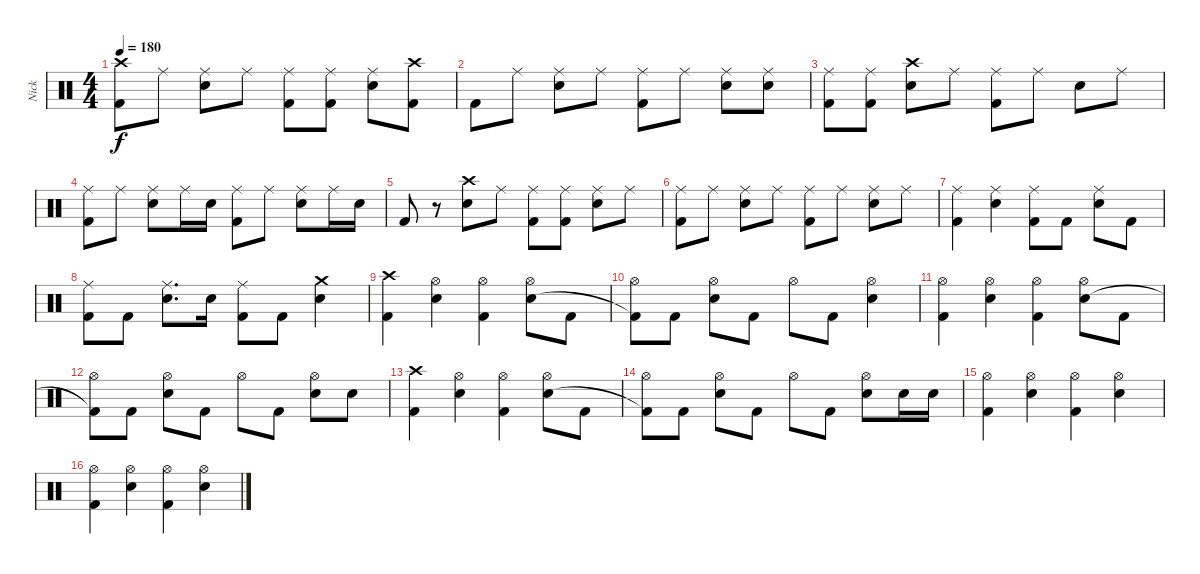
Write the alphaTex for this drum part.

\track ("Nick" "Nick") {instrument percussion}
\staff {score}
\articulation defaults
\ts (4 4)
\tempo 180
\clef neutral
\ks c
("Crash high (hit)" "Kick (hit) 2").8{dy f} "Ride (middle)".8 ("Ride (middle)" "Snare (hit) 2").8 "Ride (middle)".8 ("Ride (middle)" "Kick (hit) 2").8 ("Ride (middle)" "Kick (hit) 2").8 ("Ride (middle)" "Snare (hit) 2").8 ("Crash high (hit)" "Kick (hit) 2").8 |
"Kick (hit) 2".8 "Ride (middle)".8 ("Ride (middle)" "Snare (hit) 2").8 "Ride (middle)".8 ("Ride (middle)" "Kick (hit) 2").8 "Ride (middle)".8 ("Ride (middle)" "Snare (hit) 2").8 ("Ride (middle)" "Snare (hit) 2").8 |
("Ride (middle)" "Kick (hit) 2").8 ("Ride (middle)" "Kick (hit) 2").8 ("Crash high (hit)" "Snare (hit) 2").8 "Ride (middle)".8 ("Ride (middle)" "Kick (hit) 2").8 "Ride (middle)".8 "Snare (hit) 2".8 "Ride (middle)".8 |
("Ride (middle)" "Kick (hit) 2").8 "Ride (middle)".8 ("Ride (middle)" "Snare (hit) 2").8 "Ride (middle)".16 "Snare (hit) 2".16 ("Ride (middle)" "Kick (hit) 2").8 "Ride (middle)".8 ("Ride (middle)" "Snare (hit) 2").8 "Ride (middle)".16 "Snare (hit) 2".16 |
"Kick (hit) 2".8 r.8 ("Crash high (hit)" "Snare (hit) 2").8 "Ride (middle)".8 ("Ride (middle)" "Kick (hit) 2").8 ("Ride (middle)" "Kick (hit) 2").8 ("Ride (middle)" "Snare (hit) 2").8 "Ride (middle)".8 |
("Ride (middle)" "Kick (hit) 2").8 "Ride (middle)".8 ("Ride (middle)" "Snare (hit) 2").8 "Ride (middle)".8 ("Ride (middle)" "Kick (hit) 2").8 "Ride (middle)".8 ("Ride (middle)" "Snare (hit) 2").8 "Ride (middle)".8 |
("Ride (middle)" "Kick (hit) 2").4 ("Ride (middle)" "Snare (hit) 2").4 ("Ride (middle)" "Kick (hit) 2").8 "Kick (hit) 2".8 ("Ride (middle)" "Snare (hit) 2").8 "Kick (hit) 2".8 |
("Ride (middle)" "Kick (hit) 2").8 "Kick (hit) 2".8 ("Ride (middle)" "Snare (hit) 2").8{d} "Snare (hit) 2".16 ("Ride (middle)" "Kick (hit) 2").8 "Kick (hit) 2".8 ("Crash medium (hit)" "Snare (hit) 2").4 |
("Crash high (hit)" "Kick (hit) 2").4 ("Hi-Hat (open)" "Snare (hit) 2").4 ("Hi-Hat (open)" "Kick (hit) 2").4 ("Hi-Hat (open)" "Snare (hit) 2").8 "Kick (hit) 2".8 |
("Hi-Hat (open)" "Kick (hit) 2"{t}).8 "Kick (hit) 2".8 ("Hi-Hat (open)" "Snare (hit) 2").8 "Kick (hit) 2".8 "Hi-Hat (open)".8 "Kick (hit) 2".8 ("Hi-Hat (open)" "Snare (hit) 2").4 |
("Hi-Hat (open)" "Kick (hit) 2").4 ("Hi-Hat (open)" "Snare (hit) 2").4 ("Hi-Hat (open)" "Kick (hit) 2").4 ("Hi-Hat (open)" "Snare (hit) 2").8 "Kick (hit) 2".8 |
("Hi-Hat (open)" "Kick (hit) 2"{t}).8 "Kick (hit) 2".8 ("Hi-Hat (open)" "Snare (hit) 2").8 "Kick (hit) 2".8 "Hi-Hat (open)".8 "Kick (hit) 2".8 ("Hi-Hat (open)" "Snare (hit) 2").8 "Snare (hit) 2".8 |
("Crash high (hit)" "Kick (hit) 2").4 ("Hi-Hat (open)" "Snare (hit) 2").4 ("Hi-Hat (open)" "Kick (hit) 2").4 ("Hi-Hat (open)" "Snare (hit) 2").8 "Kick (hit) 2".8 |
("Hi-Hat (open)" "Kick (hit) 2"{t}).8 "Kick (hit) 2".8 ("Hi-Hat (open)" "Snare (hit) 2").8 "Kick (hit) 2".8 "Hi-Hat (open)".8 "Kick (hit) 2".8 ("Hi-Hat (open)" "Snare (hit) 2").8 "Snare (hit) 2".16 "Snare (hit) 2".16 |
("Hi-Hat (open)" "Kick (hit) 2").4 ("Hi-Hat (open)" "Snare (hit) 2").4 ("Hi-Hat (open)" "Kick (hit) 2").4 ("Hi-Hat (open)" "Snare (hit) 2").4 |
("Hi-Hat (open)" "Kick (hit) 2").4 ("Hi-Hat (open)" "Snare (hit) 2").4 ("Hi-Hat (open)" "Kick (hit) 2").4 ("Hi-Hat (open)" "Snare (hit) 2").4
